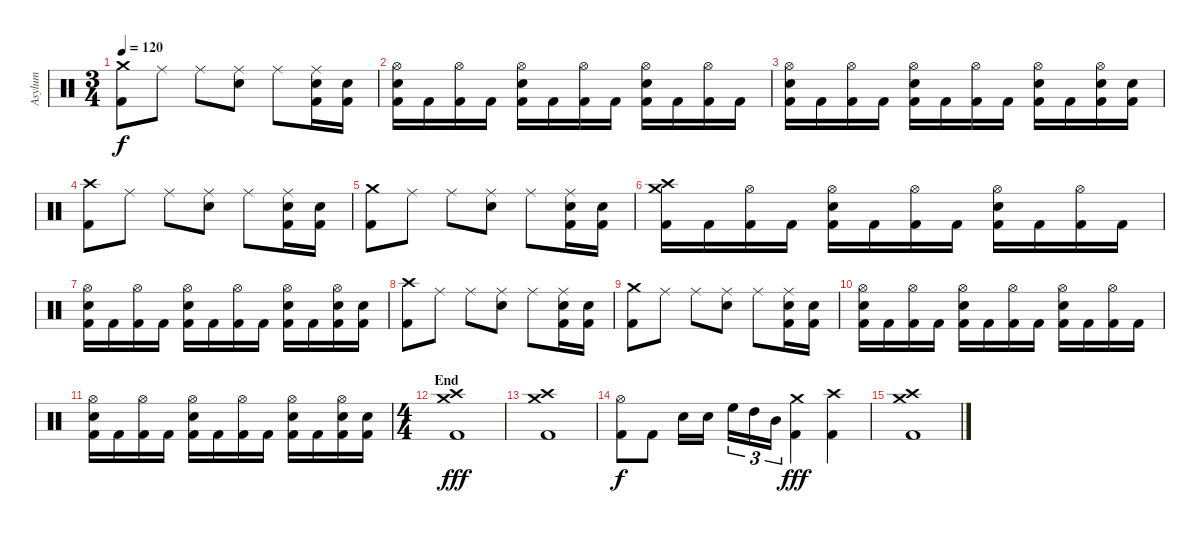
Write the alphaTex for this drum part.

\track ("Asylum" "Asylum") {instrument percussion}
\staff {score}
\articulation defaults
\ts (3 4)
\tempo 120
\clef neutral
\ks c
("Crash medium (hit)" "Kick (hit) 2").8{dy f} "Ride (middle)".8 "Ride (middle)".8 ("Ride (middle)" "Electric Snare (hit)").8 "Ride (middle)".8 ("Ride (middle)" "Electric Snare (hit)" "Kick (hit) 2").16 ("Electric Snare (hit)" "Kick (hit) 2").16 |
("Hi-Hat (open)" "Electric Snare (hit)" "Kick (hit) 2").16 "Kick (hit) 2".16 ("Hi-Hat (open)" "Kick (hit) 2").16 "Kick (hit) 2".16 ("Hi-Hat (open)" "Electric Snare (hit)" "Kick (hit) 2").16 "Kick (hit) 2".16 ("Hi-Hat (open)" "Kick (hit) 2").16 "Kick (hit) 2".16 ("Hi-Hat (open)" "Electric Snare (hit)" "Kick (hit) 2").16 "Kick (hit) 2".16 ("Hi-Hat (open)" "Kick (hit) 2").16 "Kick (hit) 2".16 |
("Hi-Hat (open)" "Electric Snare (hit)" "Kick (hit) 2").16 "Kick (hit) 2".16 ("Hi-Hat (open)" "Kick (hit) 2").16 "Kick (hit) 2".16 ("Hi-Hat (open)" "Electric Snare (hit)" "Kick (hit) 2").16 "Kick (hit) 2".16 ("Hi-Hat (open)" "Kick (hit) 2").16 "Kick (hit) 2".16 ("Hi-Hat (open)" "Electric Snare (hit)" "Kick (hit) 2").16 "Kick (hit) 2".16 ("Hi-Hat (open)" "Electric Snare (hit)" "Kick (hit) 2").16 ("Electric Snare (hit)" "Kick (hit) 2").16 |
("Crash high (hit)" "Kick (hit) 2").8 "Ride (middle)".8 "Ride (middle)".8 ("Ride (middle)" "Electric Snare (hit)").8 "Ride (middle)".8 ("Ride (middle)" "Electric Snare (hit)" "Kick (hit) 2").16 ("Electric Snare (hit)" "Kick (hit) 2").16 |
("Crash medium (hit)" "Kick (hit) 2").8 "Ride (middle)".8 "Ride (middle)".8 ("Ride (middle)" "Electric Snare (hit)").8 "Ride (middle)".8 ("Ride (middle)" "Electric Snare (hit)" "Kick (hit) 2").16 ("Electric Snare (hit)" "Kick (hit) 2").16 |
("Crash medium (hit)" "Crash high (hit)" "Kick (hit) 2").16 "Kick (hit) 2".16 ("Hi-Hat (open)" "Kick (hit) 2").16 "Kick (hit) 2".16 ("Hi-Hat (open)" "Electric Snare (hit)" "Kick (hit) 2").16 "Kick (hit) 2".16 ("Hi-Hat (open)" "Kick (hit) 2").16 "Kick (hit) 2".16 ("Hi-Hat (open)" "Electric Snare (hit)" "Kick (hit) 2").16 "Kick (hit) 2".16 ("Hi-Hat (open)" "Kick (hit) 2").16 "Kick (hit) 2".16 |
("Hi-Hat (open)" "Electric Snare (hit)" "Kick (hit) 2").16 "Kick (hit) 2".16 ("Hi-Hat (open)" "Kick (hit) 2").16 "Kick (hit) 2".16 ("Hi-Hat (open)" "Electric Snare (hit)" "Kick (hit) 2").16 "Kick (hit) 2".16 ("Hi-Hat (open)" "Kick (hit) 2").16 "Kick (hit) 2".16 ("Hi-Hat (open)" "Electric Snare (hit)" "Kick (hit) 2").16 "Kick (hit) 2".16 ("Hi-Hat (open)" "Electric Snare (hit)" "Kick (hit) 2").16 ("Electric Snare (hit)" "Kick (hit) 2").16 |
("Crash high (hit)" "Kick (hit) 2").8 "Ride (middle)".8 "Ride (middle)".8 ("Ride (middle)" "Electric Snare (hit)").8 "Ride (middle)".8 ("Ride (middle)" "Electric Snare (hit)" "Kick (hit) 2").16 ("Electric Snare (hit)" "Kick (hit) 2").16 |
("Crash medium (hit)" "Kick (hit) 2").8 "Ride (middle)".8 "Ride (middle)".8 ("Ride (middle)" "Electric Snare (hit)").8 "Ride (middle)".8 ("Ride (middle)" "Electric Snare (hit)" "Kick (hit) 2").16 ("Electric Snare (hit)" "Kick (hit) 2").16 |
("Hi-Hat (open)" "Electric Snare (hit)" "Kick (hit) 2").16 "Kick (hit) 2".16 ("Hi-Hat (open)" "Kick (hit) 2").16 "Kick (hit) 2".16 ("Hi-Hat (open)" "Electric Snare (hit)" "Kick (hit) 2").16 "Kick (hit) 2".16 ("Hi-Hat (open)" "Kick (hit) 2").16 "Kick (hit) 2".16 ("Hi-Hat (open)" "Electric Snare (hit)" "Kick (hit) 2").16 "Kick (hit) 2".16 ("Hi-Hat (open)" "Kick (hit) 2").16 "Kick (hit) 2".16 |
("Hi-Hat (open)" "Electric Snare (hit)" "Kick (hit) 2").16 "Kick (hit) 2".16 ("Hi-Hat (open)" "Kick (hit) 2").16 "Kick (hit) 2".16 ("Hi-Hat (open)" "Electric Snare (hit)" "Kick (hit) 2").16 "Kick (hit) 2".16 ("Hi-Hat (open)" "Kick (hit) 2").16 "Kick (hit) 2".16 ("Hi-Hat (open)" "Electric Snare (hit)" "Kick (hit) 2").16 "Kick (hit) 2".16 ("Hi-Hat (open)" "Electric Snare (hit)" "Kick (hit) 2").16 ("Electric Snare (hit)" "Kick (hit) 2").16 |
\ts (4 4)
\section ("" "End")
("Crash high (hit)" "Crash medium (hit)" "Kick (hit) 2").1{dy fff} |
("Crash high (hit)" "Crash medium (hit)" "Kick (hit) 2").1 |
("Hi-Hat (open)" "Kick (hit) 2").8{dy f} "Kick (hit) 2".8 "Electric Snare (hit)".16 "Electric Snare (hit)".16 "High Floor Tom (hit)".16{tu (3 2)} "High Tom (hit)".16{tu (3 2)} "Mid Tom (hit)".16{tu (3 2)} ("Crash medium (hit)" "Kick (hit) 2").4{dy fff} ("Crash high (hit)" "Kick (hit) 2").4 |
("Crash high (hit)" "Crash medium (hit)" "Kick (hit) 2").1
